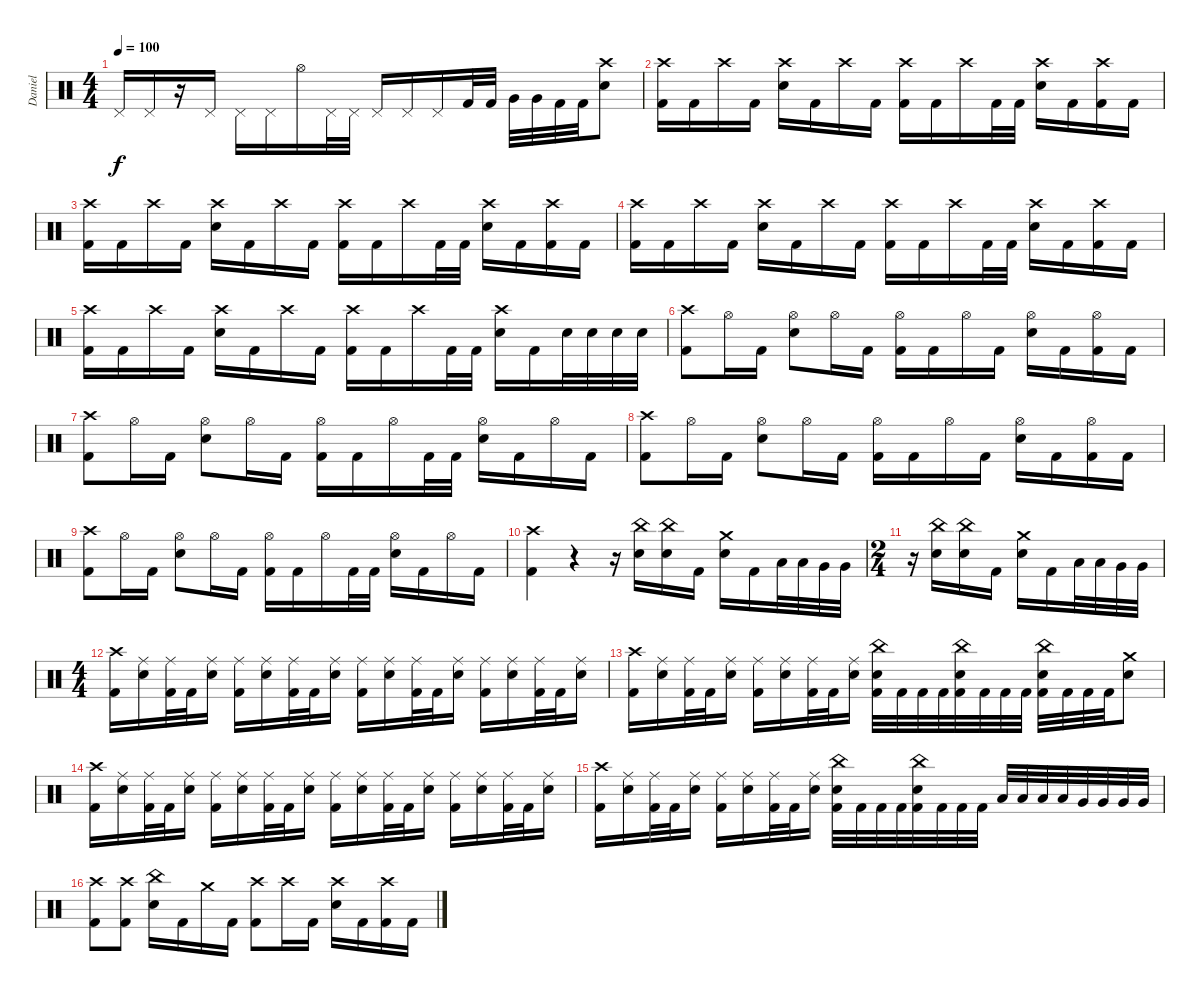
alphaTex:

\track ("Daniel" "Daniel") {instrument percussion}
\staff {score}
\articulation defaults
\ts (4 4)
\tempo 100
\clef neutral
\ks c "Pedal Hi-Hat (hit)".16{dy f} "Pedal Hi-Hat (hit)".16
r.16 "Pedal Hi-Hat (hit)".16 "Pedal Hi-Hat (hit)".16 "Pedal Hi-Hat (hit)".16 "Hi-Hat (open)".16 "Pedal Hi-Hat (hit)".32 "Pedal Hi-Hat (hit)".32 "Pedal Hi-Hat (hit)".16 "Pedal Hi-Hat (hit)".16 "Pedal Hi-Hat (hit)".16 "Kick (hit) 2".32 "Kick (hit) 2".32 "Very Low Tom (hit)".32 "Very Low Tom (hit)".32 "Kick (hit) 2".32 "Kick (hit) 2".32 ("Crash high (hit)" "Snare (hit) 2").8 |
("Crash high (hit)" "Kick (hit) 2").16 "Kick (hit) 2".16 "Crash high (hit)".16 "Kick (hit) 2".16 ("Crash high (hit)" "Snare (hit) 2").16 "Kick (hit) 2".16 "Crash high (hit)".16 "Kick (hit) 2".16 ("Crash high (hit)" "Kick (hit) 2").16 "Kick (hit) 2".16 "Crash high (hit)".16 "Kick (hit) 2".32 "Kick (hit) 2".32 ("Crash high (hit)" "Snare (hit) 2").16 "Kick (hit) 2".16 ("Crash high (hit)" "Kick (hit) 2").16 "Kick (hit) 2".16 |
("Crash high (hit)" "Kick (hit) 2").16 "Kick (hit) 2".16 "Crash high (hit)".16 "Kick (hit) 2".16 ("Crash high (hit)" "Snare (hit) 2").16 "Kick (hit) 2".16 "Crash high (hit)".16 "Kick (hit) 2".16 ("Crash high (hit)" "Kick (hit) 2").16 "Kick (hit) 2".16 "Crash high (hit)".16 "Kick (hit) 2".32 "Kick (hit) 2".32 ("Crash high (hit)" "Snare (hit) 2").16 "Kick (hit) 2".16 ("Crash high (hit)" "Kick (hit) 2").16 "Kick (hit) 2".16 |
("Crash high (hit)" "Kick (hit) 2").16 "Kick (hit) 2".16 "Crash high (hit)".16 "Kick (hit) 2".16 ("Crash high (hit)" "Snare (hit) 2").16 "Kick (hit) 2".16 "Crash high (hit)".16 "Kick (hit) 2".16 ("Crash high (hit)" "Kick (hit) 2").16 "Kick (hit) 2".16 "Crash high (hit)".16 "Kick (hit) 2".32 "Kick (hit) 2".32 ("Crash high (hit)" "Snare (hit) 2").16 "Kick (hit) 2".16 ("Crash high (hit)" "Kick (hit) 2").16 "Kick (hit) 2".16 |
("Crash high (hit)" "Kick (hit) 2").16 "Kick (hit) 2".16 "Crash high (hit)".16 "Kick (hit) 2".16 ("Crash high (hit)" "Snare (hit) 2").16 "Kick (hit) 2".16 "Crash high (hit)".16 "Kick (hit) 2".16 ("Crash high (hit)" "Kick (hit) 2").16 "Kick (hit) 2".16 "Crash high (hit)".16 "Kick (hit) 2".32 "Kick (hit) 2".32 ("Crash high (hit)" "Snare (hit) 2").16 "Kick (hit) 2".16 "Snare (hit) 2".32 "Snare (hit) 2".32 "Snare (hit) 2".32 "Snare (hit) 2".32 |
("Crash high (hit)" "Kick (hit) 2").8 "Hi-Hat (open)".16 "Kick (hit) 2".16 ("Hi-Hat (open)" "Snare (hit) 2").8 "Hi-Hat (open)".16 "Kick (hit) 2".16 ("Hi-Hat (open)" "Kick (hit) 2").16 "Kick (hit) 2".16 "Hi-Hat (open)".16 "Kick (hit) 2".16 ("Hi-Hat (open)" "Snare (hit) 2").16 "Kick (hit) 2".16 ("Hi-Hat (open)" "Kick (hit) 2").16 "Kick (hit) 2".16 |
("Crash high (hit)" "Kick (hit) 2").8 "Hi-Hat (open)".16 "Kick (hit) 2".16 ("Hi-Hat (open)" "Snare (hit) 2").8 "Hi-Hat (open)".16 "Kick (hit) 2".16 ("Hi-Hat (open)" "Kick (hit) 2").16 "Kick (hit) 2".16 "Hi-Hat (open)".16 "Kick (hit) 2".32 "Kick (hit) 2".32 ("Hi-Hat (open)" "Snare (hit) 2").16 "Kick (hit) 2".16 "Hi-Hat (open)".16 "Kick (hit) 2".16 |
("Crash high (hit)" "Kick (hit) 2").8 "Hi-Hat (open)".16 "Kick (hit) 2".16 ("Hi-Hat (open)" "Snare (hit) 2").8 "Hi-Hat (open)".16 "Kick (hit) 2".16 ("Hi-Hat (open)" "Kick (hit) 2").16 "Kick (hit) 2".16 "Hi-Hat (open)".16 "Kick (hit) 2".16 ("Hi-Hat (open)" "Snare (hit) 2").16 "Kick (hit) 2".16 ("Hi-Hat (open)" "Kick (hit) 2").16 "Kick (hit) 2".16 |
("Crash high (hit)" "Kick (hit) 2").8 "Hi-Hat (open)".16 "Kick (hit) 2".16 ("Hi-Hat (open)" "Snare (hit) 2").8 "Hi-Hat (open)".16 "Kick (hit) 2".16 ("Hi-Hat (open)" "Kick (hit) 2").16 "Kick (hit) 2".16 "Hi-Hat (open)".16 "Kick (hit) 2".32 "Kick (hit) 2".32 ("Hi-Hat (open)" "Snare (hit) 2").16 "Kick (hit) 2".16 "Hi-Hat (open)".16 "Kick (hit) 2".16 |
("Crash high (hit)" "Kick (hit) 2").4 r.4 r.16 ("China (hit)" "Snare (hit) 2").16 ("China (hit)" "Snare (hit) 2").16 "Kick (hit) 2".16 ("Crash medium (hit)" "Snare (hit) 2").16 "Kick (hit) 2".16 "Low Tom (hit)".32 "Low Tom (hit)".32 "Very Low Tom (hit)".32 "Very Low Tom (hit)".32 |
\ts (2 4)
r.16 ("China (hit)" "Snare (hit) 2").16 ("China (hit)" "Snare (hit) 2").16 "Kick (hit) 2".16 ("Crash medium (hit)" "Snare (hit) 2").16 "Kick (hit) 2".16 "Low Tom (hit)".32 "Low Tom (hit)".32 "Very Low Tom (hit)".32 "Very Low Tom (hit)".32 |
\ts (4 4)
("Crash high (hit)" "Kick (hit) 2").16 ("Ride (middle)" "Snare (hit) 2").16 ("Ride (middle)" "Kick (hit) 2").32 "Kick (hit) 2".32 ("Ride (middle)" "Snare (hit) 2").16 ("Ride (middle)" "Kick (hit) 2").16 ("Ride (middle)" "Snare (hit) 2").16 ("Ride (middle)" "Kick (hit) 2").32 "Kick (hit) 2".32 ("Ride (middle)" "Snare (hit) 2").16 ("Ride (middle)" "Kick (hit) 2").16 ("Ride (middle)" "Snare (hit) 2").16 ("Ride (middle)" "Kick (hit) 2").32 "Kick (hit) 2".32 ("Ride (middle)" "Snare (hit) 2").16 ("Ride (middle)" "Kick (hit) 2").16 ("Ride (middle)" "Snare (hit) 2").16 ("Ride (middle)" "Kick (hit) 2").32 "Kick (hit) 2".32 ("Ride (middle)" "Snare (hit) 2").16 |
("Crash high (hit)" "Kick (hit) 2").16 ("Ride (middle)" "Snare (hit) 2").16 ("Ride (middle)" "Kick (hit) 2").32 "Kick (hit) 2".32 ("Ride (middle)" "Snare (hit) 2").16 ("Ride (middle)" "Kick (hit) 2").16 ("Ride (middle)" "Snare (hit) 2").16 ("Ride (middle)" "Kick (hit) 2").32 "Kick (hit) 2".32 ("Ride (middle)" "Snare (hit) 2").16 ("China (hit)" "Snare (hit) 2" "Kick (hit) 2").32 "Kick (hit) 2".32 "Kick (hit) 2".32 "Kick (hit) 2".32 ("China (hit)" "Snare (hit) 2" "Kick (hit) 2").32 "Kick (hit) 2".32 "Kick (hit) 2".32 "Kick (hit) 2".32 ("China (hit)" "Snare (hit) 2" "Kick (hit) 2").32 "Kick (hit) 2".32 "Kick (hit) 2".32 "Kick (hit) 2".32 ("Crash medium (hit)" "Snare (hit) 2").8 |
("Crash high (hit)" "Kick (hit) 2").16 ("Ride (middle)" "Snare (hit) 2").16 ("Ride (middle)" "Kick (hit) 2").32 "Kick (hit) 2".32 ("Ride (middle)" "Snare (hit) 2").16 ("Ride (middle)" "Kick (hit) 2").16 ("Ride (middle)" "Snare (hit) 2").16 ("Ride (middle)" "Kick (hit) 2").32 "Kick (hit) 2".32 ("Ride (middle)" "Snare (hit) 2").16 ("Ride (middle)" "Kick (hit) 2").16 ("Ride (middle)" "Snare (hit) 2").16 ("Ride (middle)" "Kick (hit) 2").32 "Kick (hit) 2".32 ("Ride (middle)" "Snare (hit) 2").16 ("Ride (middle)" "Kick (hit) 2").16 ("Ride (middle)" "Snare (hit) 2").16 ("Ride (middle)" "Kick (hit) 2").32 "Kick (hit) 2".32 ("Ride (middle)" "Snare (hit) 2").16 |
("Crash high (hit)" "Kick (hit) 2").16 ("Ride (middle)" "Snare (hit) 2").16 ("Ride (middle)" "Kick (hit) 2").32 "Kick (hit) 2".32 ("Ride (middle)" "Snare (hit) 2").16 ("Ride (middle)" "Kick (hit) 2").16 ("Ride (middle)" "Snare (hit) 2").16 ("Ride (middle)" "Kick (hit) 2").32 "Kick (hit) 2".32 ("Ride (middle)" "Snare (hit) 2").16 ("China (hit)" "Snare (hit) 2" "Kick (hit) 2").32 "Kick (hit) 2".32 "Kick (hit) 2".32 "Kick (hit) 2".32 ("China (hit)" "Snare (hit) 2" "Kick (hit) 2").32 "Kick (hit) 2".32 "Kick (hit) 2".32 "Kick (hit) 2".32 "Low Tom (hit)".32 "Low Tom (hit)".32 "Low Tom (hit)".32 "Low Tom (hit)".32 "Very Low Tom (hit)".32 "Very Low Tom (hit)".32 "Very Low Tom (hit)".32 "Very Low Tom (hit)".32 |
("Crash high (hit)" "Kick (hit) 2").8 ("Crash high (hit)" "Kick (hit) 2").8 ("China (hit)" "Snare (hit) 2").16 "Kick (hit) 2".16 "Crash medium (hit)".16 "Kick (hit) 2".16 ("Crash high (hit)" "Kick (hit) 2").8 "Crash high (hit)".16 "Kick (hit) 2".16 ("Crash high (hit)" "Snare (hit) 2").16 "Kick (hit) 2".16 ("Crash high (hit)" "Kick (hit) 2").16 "Kick (hit) 2".16
